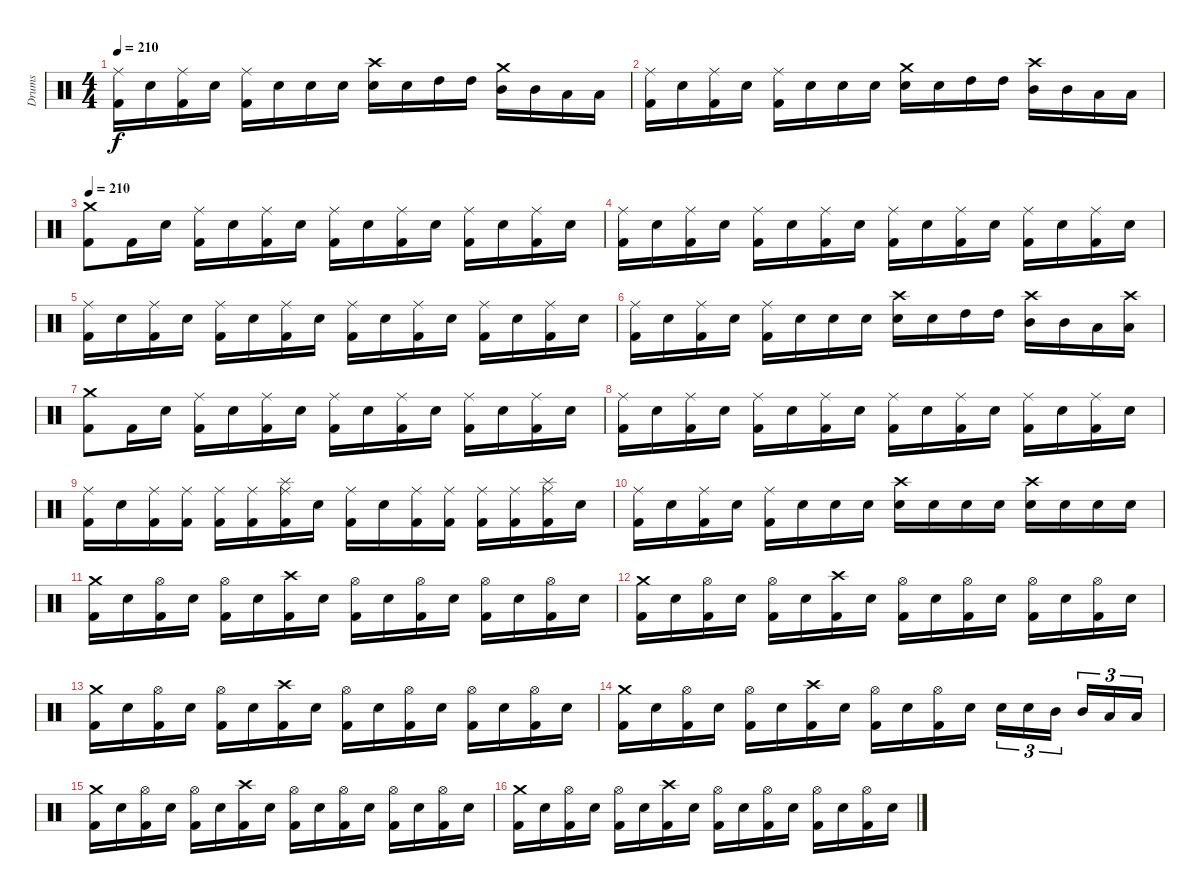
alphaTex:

\track ("Drums" "Drums") {instrument percussion}
\staff {score}
\articulation defaults
\ts (4 4)
\tempo 210
\clef neutral
\ks c
("Kick (hit) 2" "Ride (middle)").16{dy f} "Electric Snare (hit)".16 ("Kick (hit) 2" "Ride (middle)").16 "Electric Snare (hit)".16 ("Kick (hit) 2" "Ride (middle)").16 "Electric Snare (hit)".16 "Electric Snare (hit)".16 "Electric Snare (hit)".16 ("Crash high (hit)" "Electric Snare (hit)").16 "Electric Snare (hit)".16 "High Tom (hit)".16 "High Tom (hit)".16 ("Crash medium (hit)" "Mid Tom (hit)").16 "Mid Tom (hit)".16 "Low Tom (hit)".16 "Low Tom (hit)".16 |
("Kick (hit) 2" "Ride (middle)").16 "Electric Snare (hit)".16 ("Kick (hit) 2" "Ride (middle)").16 "Electric Snare (hit)".16 ("Kick (hit) 2" "Ride (middle)").16 "Electric Snare (hit)".16 "Electric Snare (hit)".16 "Electric Snare (hit)".16 ("Crash medium (hit)" "Electric Snare (hit)").16 "Electric Snare (hit)".16 "High Tom (hit)".16 "High Tom (hit)".16 ("Crash high (hit)" "Mid Tom (hit)").16 "Mid Tom (hit)".16 "Low Tom (hit)".16 "Low Tom (hit)".16 |
\tempo 210
("Kick (hit) 2" "Crash medium (hit)").8 "Kick (hit) 2".16 "Electric Snare (hit)".16 ("Kick (hit) 2" "Ride (middle)").16 "Electric Snare (hit)".16 ("Kick (hit) 2" "Ride (middle)").16 "Electric Snare (hit)".16 ("Kick (hit) 2" "Ride (middle)").16 "Electric Snare (hit)".16 ("Kick (hit) 2" "Ride (middle)").16 "Electric Snare (hit)".16 ("Kick (hit) 2" "Ride (middle)").16 "Electric Snare (hit)".16 ("Kick (hit) 2" "Ride (middle)").16 "Electric Snare (hit)".16 |
("Kick (hit) 2" "Ride (middle)").16 "Electric Snare (hit)".16 ("Kick (hit) 2" "Ride (middle)").16 "Electric Snare (hit)".16 ("Kick (hit) 2" "Ride (middle)").16 "Electric Snare (hit)".16 ("Kick (hit) 2" "Ride (middle)").16 "Electric Snare (hit)".16 ("Kick (hit) 2" "Ride (middle)").16 "Electric Snare (hit)".16 ("Kick (hit) 2" "Ride (middle)").16 "Electric Snare (hit)".16 ("Kick (hit) 2" "Ride (middle)").16 "Electric Snare (hit)".16 ("Kick (hit) 2" "Ride (middle)").16 "Electric Snare (hit)".16 |
("Kick (hit) 2" "Ride (middle)").16 "Electric Snare (hit)".16 ("Kick (hit) 2" "Ride (middle)").16 "Electric Snare (hit)".16 ("Kick (hit) 2" "Ride (middle)").16 "Electric Snare (hit)".16 ("Kick (hit) 2" "Ride (middle)").16 "Electric Snare (hit)".16 ("Kick (hit) 2" "Ride (middle)").16 "Electric Snare (hit)".16 ("Kick (hit) 2" "Ride (middle)").16 "Electric Snare (hit)".16 ("Kick (hit) 2" "Ride (middle)").16 "Electric Snare (hit)".16 ("Kick (hit) 2" "Ride (middle)").16 "Electric Snare (hit)".16 |
("Kick (hit) 2" "Ride (middle)").16 "Electric Snare (hit)".16 ("Kick (hit) 2" "Ride (middle)").16 "Electric Snare (hit)".16 ("Kick (hit) 2" "Ride (middle)").16 "Electric Snare (hit)".16 "Electric Snare (hit)".16 "Electric Snare (hit)".16 ("Crash high (hit)" "Electric Snare (hit)").16 "Electric Snare (hit)".16 "High Tom (hit)".16 "High Tom (hit)".16 ("Crash high (hit)" "Mid Tom (hit)").16 "Mid Tom (hit)".16 "Low Tom (hit)".16 ("Crash high (hit)" "Low Tom (hit)").16 |
("Kick (hit) 2" "Crash medium (hit)").8 "Kick (hit) 2".16 "Electric Snare (hit)".16 ("Kick (hit) 2" "Ride (middle)").16 "Electric Snare (hit)".16 ("Kick (hit) 2" "Ride (middle)").16 "Electric Snare (hit)".16 ("Kick (hit) 2" "Ride (middle)").16 "Electric Snare (hit)".16 ("Kick (hit) 2" "Ride (middle)").16 "Electric Snare (hit)".16 ("Kick (hit) 2" "Ride (middle)").16 "Electric Snare (hit)".16 ("Kick (hit) 2" "Ride (middle)").16 "Electric Snare (hit)".16 |
("Kick (hit) 2" "Ride (middle)").16 "Electric Snare (hit)".16 ("Kick (hit) 2" "Ride (middle)").16 "Electric Snare (hit)".16 ("Kick (hit) 2" "Ride (middle)").16 "Electric Snare (hit)".16 ("Kick (hit) 2" "Ride (middle)").16 "Electric Snare (hit)".16 ("Kick (hit) 2" "Ride (middle)").16 "Electric Snare (hit)".16 ("Kick (hit) 2" "Ride (middle)").16 "Electric Snare (hit)".16 ("Kick (hit) 2" "Ride (middle)").16 "Electric Snare (hit)".16 ("Kick (hit) 2" "Ride (middle)").16 "Electric Snare (hit)".16 |
("Kick (hit) 2" "Ride (middle)").16 "Electric Snare (hit)".16 ("Kick (hit) 2" "Ride (middle)").16 ("Kick (hit) 2" "Ride (middle)").16 ("Kick (hit) 2" "Ride (middle)").16 ("Kick (hit) 2" "Ride (middle)").16 ("Kick (hit) 2" "Ride (middle)" "Splash (hit)").16 "Electric Snare (hit)".16 ("Kick (hit) 2" "Ride (middle)").16 "Electric Snare (hit)".16 ("Kick (hit) 2" "Ride (middle)").16 ("Kick (hit) 2" "Ride (middle)").16 ("Kick (hit) 2" "Ride (middle)").16 ("Kick (hit) 2" "Ride (middle)").16 ("Kick (hit) 2" "Ride (middle)" "Splash (hit)").16 "Electric Snare (hit)".16 |
("Kick (hit) 2" "Ride (middle)").16 "Electric Snare (hit)".16 ("Kick (hit) 2" "Ride (middle)").16 "Electric Snare (hit)".16 ("Kick (hit) 2" "Ride (middle)").16 "Electric Snare (hit)".16 "Electric Snare (hit)".16 "Electric Snare (hit)".16 ("Crash high (hit)" "Electric Snare (hit)").16 "Electric Snare (hit)".16 "Electric Snare (hit)".16 "Electric Snare (hit)".16 ("Crash high (hit)" "Electric Snare (hit)").16 "Electric Snare (hit)".16 "Electric Snare (hit)".16 "Electric Snare (hit)".16 |
("Kick (hit) 2" "Crash medium (hit)").16 "Electric Snare (hit)".16 ("Kick (hit) 2" "Hi-Hat (open)").16 "Electric Snare (hit)".16 ("Kick (hit) 2" "Hi-Hat (open)").16 "Electric Snare (hit)".16 ("Kick (hit) 2" "Crash high (hit)").16 "Electric Snare (hit)".16 ("Kick (hit) 2" "Hi-Hat (open)").16 "Electric Snare (hit)".16 ("Kick (hit) 2" "Hi-Hat (open)").16 "Electric Snare (hit)".16 ("Kick (hit) 2" "Hi-Hat (open)").16 "Electric Snare (hit)".16 ("Kick (hit) 2" "Hi-Hat (open)").16 "Electric Snare (hit)".16 |
("Kick (hit) 2" "Crash medium (hit)").16 "Electric Snare (hit)".16 ("Kick (hit) 2" "Hi-Hat (open)").16 "Electric Snare (hit)".16 ("Kick (hit) 2" "Hi-Hat (open)").16 "Electric Snare (hit)".16 ("Kick (hit) 2" "Crash high (hit)").16 "Electric Snare (hit)".16 ("Kick (hit) 2" "Hi-Hat (open)").16 "Electric Snare (hit)".16 ("Kick (hit) 2" "Hi-Hat (open)").16 "Electric Snare (hit)".16 ("Kick (hit) 2" "Hi-Hat (open)").16 "Electric Snare (hit)".16 ("Kick (hit) 2" "Hi-Hat (open)").16 "Electric Snare (hit)".16 |
("Kick (hit) 2" "Crash medium (hit)").16 "Electric Snare (hit)".16 ("Kick (hit) 2" "Hi-Hat (open)").16 "Electric Snare (hit)".16 ("Kick (hit) 2" "Hi-Hat (open)").16 "Electric Snare (hit)".16 ("Kick (hit) 2" "Crash high (hit)").16 "Electric Snare (hit)".16 ("Kick (hit) 2" "Hi-Hat (open)").16 "Electric Snare (hit)".16 ("Kick (hit) 2" "Hi-Hat (open)").16 "Electric Snare (hit)".16 ("Kick (hit) 2" "Hi-Hat (open)").16 "Electric Snare (hit)".16 ("Kick (hit) 2" "Hi-Hat (open)").16 "Electric Snare (hit)".16 |
("Kick (hit) 2" "Crash medium (hit)").16 "Electric Snare (hit)".16 ("Kick (hit) 2" "Hi-Hat (open)").16 "Electric Snare (hit)".16 ("Kick (hit) 2" "Hi-Hat (open)").16 "Electric Snare (hit)".16 ("Kick (hit) 2" "Crash high (hit)").16 "Electric Snare (hit)".16 ("Kick (hit) 2" "Hi-Hat (open)").16 "Electric Snare (hit)".16 ("Kick (hit) 2" "Hi-Hat (open)").16 "Electric Snare (hit)".16 "Electric Snare (hit)".16{tu (3 2)} "Electric Snare (hit)".16{tu (3 2)} "Mid Tom (hit)".16{tu (3 2)} "Mid Tom (hit)".16{tu (3 2)} "Low Tom (hit)".16{tu (3 2)} "Low Tom (hit)".16{tu (3 2)} |
("Kick (hit) 2" "Crash medium (hit)").16 "Electric Snare (hit)".16 ("Kick (hit) 2" "Hi-Hat (open)").16 "Electric Snare (hit)".16 ("Kick (hit) 2" "Hi-Hat (open)").16 "Electric Snare (hit)".16 ("Kick (hit) 2" "Crash high (hit)").16 "Electric Snare (hit)".16 ("Kick (hit) 2" "Hi-Hat (open)").16 "Electric Snare (hit)".16 ("Kick (hit) 2" "Hi-Hat (open)").16 "Electric Snare (hit)".16 ("Kick (hit) 2" "Hi-Hat (open)").16 "Electric Snare (hit)".16 ("Kick (hit) 2" "Hi-Hat (open)").16 "Electric Snare (hit)".16 |
("Kick (hit) 2" "Crash medium (hit)").16 "Electric Snare (hit)".16 ("Kick (hit) 2" "Hi-Hat (open)").16 "Electric Snare (hit)".16 ("Kick (hit) 2" "Hi-Hat (open)").16 "Electric Snare (hit)".16 ("Kick (hit) 2" "Crash high (hit)").16 "Electric Snare (hit)".16 ("Kick (hit) 2" "Hi-Hat (open)").16 "Electric Snare (hit)".16 ("Kick (hit) 2" "Hi-Hat (open)").16 "Electric Snare (hit)".16 ("Kick (hit) 2" "Hi-Hat (open)").16 "Electric Snare (hit)".16 ("Kick (hit) 2" "Hi-Hat (open)").16 "Electric Snare (hit)".16
